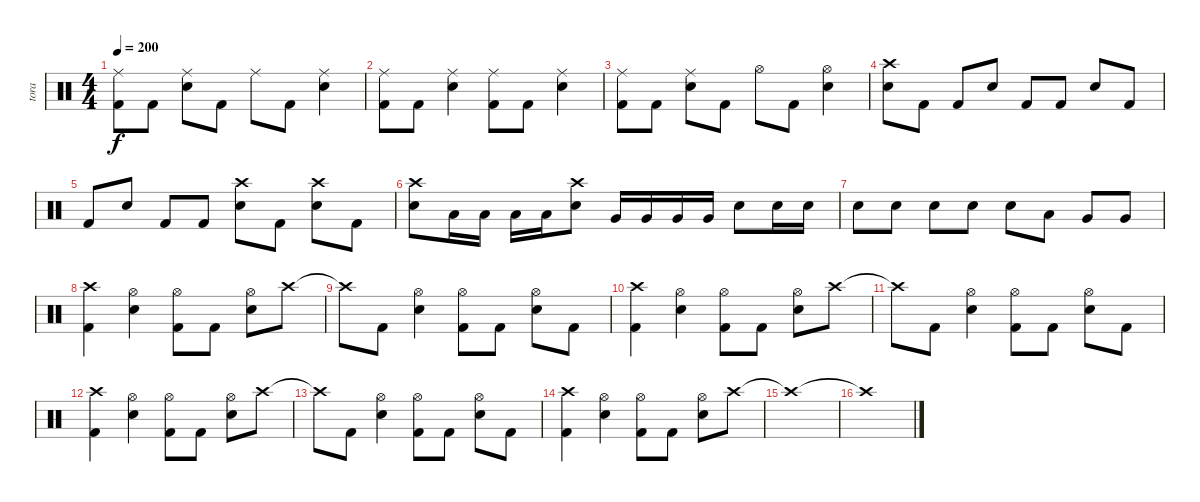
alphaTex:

\track ("tora" "tora") {instrument percussion}
\staff {score}
\articulation defaults
\ts (4 4)
\tempo 200
\clef neutral
\ks c
("Ride (middle)" "Kick (hit) 2").8{dy f} "Kick (hit) 2".8 ("Ride (middle)" "Snare (hit) 2").8 "Kick (hit) 2".8 "Ride (middle)".8 "Kick (hit) 2".8 ("Ride (middle)" "Snare (hit) 2").4 |
("Ride (middle)" "Kick (hit) 2").8 "Kick (hit) 2".8 ("Ride (middle)" "Snare (hit) 2").4 ("Ride (middle)" "Kick (hit) 2").8 "Kick (hit) 2".8 ("Ride (middle)" "Snare (hit) 2").4 |
("Ride (middle)" "Kick (hit) 2").8 "Kick (hit) 2".8 ("Ride (middle)" "Snare (hit) 2").8 "Kick (hit) 2".8 "Hi-Hat (open)".8 "Kick (hit) 2".8 ("Hi-Hat (open)" "Snare (hit) 2").4 |
("Crash high (hit)" "Snare (hit) 2").8 "Kick (hit) 2".8 "Kick (hit) 2".8 "Snare (hit) 2".8 "Kick (hit) 2".8 "Kick (hit) 2".8 "Snare (hit) 2".8 "Kick (hit) 2".8 |
"Kick (hit) 2".8 "Snare (hit) 2".8 "Kick (hit) 2".8 "Kick (hit) 2".8 ("Crash high (hit)" "Snare (hit) 2").8 "Kick (hit) 2".8 ("Crash high (hit)" "Snare (hit) 2").8 "Kick (hit) 2".8 |
("Crash high (hit)" "Snare (hit) 2").8 "Low Tom (hit)".16 "Low Tom (hit)".16 "Low Tom (hit)".16 "Low Tom (hit)".16 ("Crash high (hit)" "Snare (hit) 2").8 "Very Low Tom (hit)".16 "Very Low Tom (hit)".16 "Very Low Tom (hit)".16 "Very Low Tom (hit)".16 "Snare (hit) 2".8 "Snare (hit) 2".16 "Snare (hit) 2".16 |
"Snare (hit) 2".8 "Snare (hit) 2".8 "Snare (hit) 2".8 "Snare (hit) 2".8 "Snare (hit) 2".8 "Low Tom (hit)".8 "Very Low Tom (hit)".8 "Very Low Tom (hit)".8 |
("Crash high (hit)" "Kick (hit) 2").4 ("Hi-Hat (open)" "Snare (hit) 2").4 ("Hi-Hat (open)" "Kick (hit) 2").8 "Kick (hit) 2".8 ("Hi-Hat (open)" "Snare (hit) 2").8 "Crash high (hit)".8 |
"Crash high (hit)"{t}.8 "Kick (hit) 2".8 ("Hi-Hat (open)" "Snare (hit) 2").4 ("Hi-Hat (open)" "Kick (hit) 2").8 "Kick (hit) 2".8 ("Hi-Hat (open)" "Snare (hit) 2").8 "Kick (hit) 2".8 |
("Crash high (hit)" "Kick (hit) 2").4 ("Hi-Hat (open)" "Snare (hit) 2").4 ("Hi-Hat (open)" "Kick (hit) 2").8 "Kick (hit) 2".8 ("Hi-Hat (open)" "Snare (hit) 2").8 "Crash high (hit)".8 |
"Crash high (hit)"{t}.8 "Kick (hit) 2".8 ("Hi-Hat (open)" "Snare (hit) 2").4 ("Hi-Hat (open)" "Kick (hit) 2").8 "Kick (hit) 2".8 ("Hi-Hat (open)" "Snare (hit) 2").8 "Kick (hit) 2".8 |
("Crash high (hit)" "Kick (hit) 2").4 ("Hi-Hat (open)" "Snare (hit) 2").4 ("Hi-Hat (open)" "Kick (hit) 2").8 "Kick (hit) 2".8 ("Hi-Hat (open)" "Snare (hit) 2").8 "Crash high (hit)".8 |
"Crash high (hit)"{t}.8 "Kick (hit) 2".8 ("Hi-Hat (open)" "Snare (hit) 2").4 ("Hi-Hat (open)" "Kick (hit) 2").8 "Kick (hit) 2".8 ("Hi-Hat (open)" "Snare (hit) 2").8 "Kick (hit) 2".8 |
("Crash high (hit)" "Kick (hit) 2").4 ("Hi-Hat (open)" "Snare (hit) 2").4 ("Hi-Hat (open)" "Kick (hit) 2").8 "Kick (hit) 2".8 ("Hi-Hat (open)" "Snare (hit) 2").8 "Crash high (hit)".8 |
"Crash high (hit)"{t}.1 |
"Crash high (hit)"{t}.1
